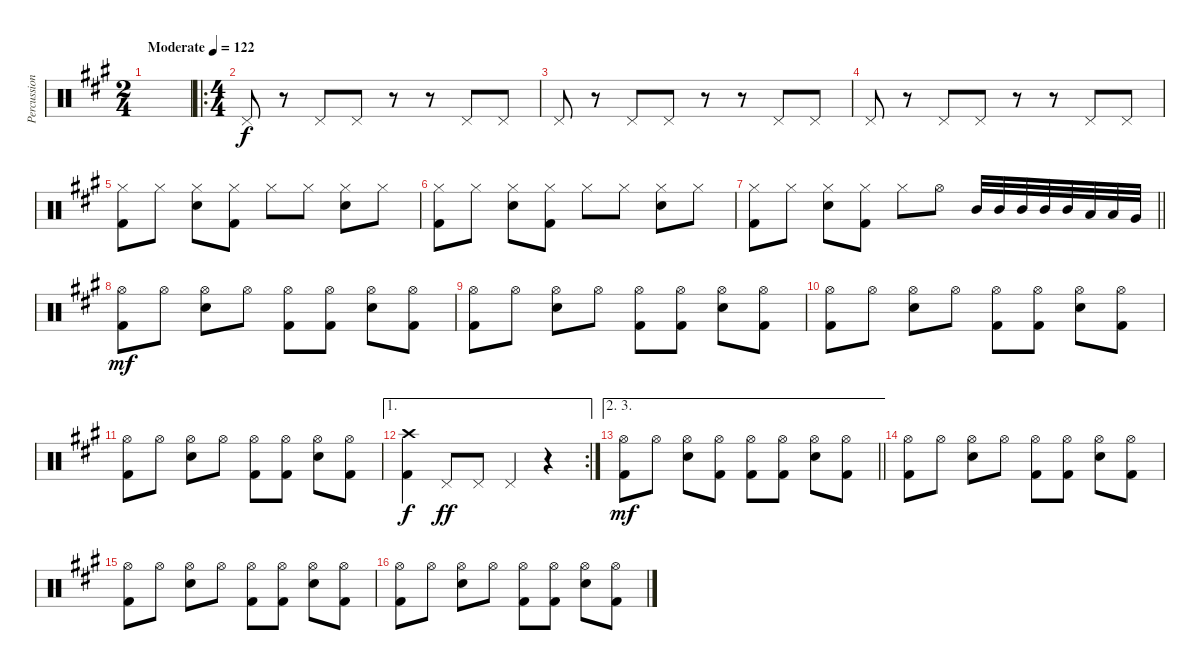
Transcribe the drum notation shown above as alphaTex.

\track ("Percussion" "Percussion") {instrument percussion}
\staff {score}
\articulation defaults
\ts (2 4)
\tempo (122 "Moderate")
\clef neutral
\ks a
|
\ro
\ts (4 4)
"Pedal Hi-Hat (hit)".8 r.8 "Pedal Hi-Hat (hit)".8 "Pedal Hi-Hat (hit)".8 r.8 r.8 "Pedal Hi-Hat (hit)".8 "Pedal Hi-Hat (hit)".8 |
"Pedal Hi-Hat (hit)".8 r.8 "Pedal Hi-Hat (hit)".8 "Pedal Hi-Hat (hit)".8 r.8 r.8 "Pedal Hi-Hat (hit)".8 "Pedal Hi-Hat (hit)".8 |
"Pedal Hi-Hat (hit)".8 r.8 "Pedal Hi-Hat (hit)".8 "Pedal Hi-Hat (hit)".8 r.8 r.8 "Pedal Hi-Hat (hit)".8 "Pedal Hi-Hat (hit)".8 |
("Hi-Hat (closed)" "Kick (hit) 2").8 "Hi-Hat (closed)".8 ("Hi-Hat (closed)" "Snare (hit) 2").8 ("Hi-Hat (closed)" "Kick (hit) 2").8 "Hi-Hat (closed)".8 "Hi-Hat (closed)".8 ("Hi-Hat (closed)" "Snare (hit) 2").8 "Hi-Hat (closed)".8 |
("Hi-Hat (closed)" "Kick (hit) 2").8 "Hi-Hat (closed)".8 ("Hi-Hat (closed)" "Snare (hit) 2").8 ("Hi-Hat (closed)" "Kick (hit) 2").8 "Hi-Hat (closed)".8 "Hi-Hat (closed)".8 ("Hi-Hat (closed)" "Snare (hit) 2").8 "Hi-Hat (closed)".8 |
\barLineRight lightlight
("Hi-Hat (closed)" "Kick (hit) 2").8 "Hi-Hat (closed)".8 ("Hi-Hat (closed)" "Snare (hit) 2").8 ("Hi-Hat (closed)" "Kick (hit) 2").8 "Hi-Hat (closed)".8 "Hi-Hat (open)".8 "Mid Tom (hit)".32 "Mid Tom (hit)".32 "Mid Tom (hit)".32 "Mid Tom (hit)".32 "Mid Tom (hit)".32 "Low Tom (hit)".32 "Low Tom (hit)".32 "Very Low Tom (hit)".32 |
("Hi-Hat (open)" "Kick (hit) 2").8{dy mf} "Hi-Hat (open)".8 ("Hi-Hat (open)" "Snare (hit) 2").8 "Hi-Hat (open)".8 ("Hi-Hat (open)" "Kick (hit) 2").8 ("Hi-Hat (open)" "Kick (hit) 2").8 ("Hi-Hat (open)" "Snare (hit) 2").8 ("Hi-Hat (open)" "Kick (hit) 2").8 |
("Hi-Hat (open)" "Kick (hit) 2").8 "Hi-Hat (open)".8 ("Hi-Hat (open)" "Snare (hit) 2").8 "Hi-Hat (open)".8 ("Hi-Hat (open)" "Kick (hit) 2").8 ("Hi-Hat (open)" "Kick (hit) 2").8 ("Hi-Hat (open)" "Snare (hit) 2").8 ("Hi-Hat (open)" "Kick (hit) 2").8 |
("Hi-Hat (open)" "Kick (hit) 2").8 "Hi-Hat (open)".8 ("Hi-Hat (open)" "Snare (hit) 2").8 "Hi-Hat (open)".8 ("Hi-Hat (open)" "Kick (hit) 2").8 ("Hi-Hat (open)" "Kick (hit) 2").8 ("Hi-Hat (open)" "Snare (hit) 2").8 ("Hi-Hat (open)" "Kick (hit) 2").8 |
("Hi-Hat (open)" "Kick (hit) 2").8 "Hi-Hat (open)".8 ("Hi-Hat (open)" "Snare (hit) 2").8 "Hi-Hat (open)".8 ("Hi-Hat (open)" "Kick (hit) 2").8 ("Hi-Hat (open)" "Kick (hit) 2").8 ("Hi-Hat (open)" "Snare (hit) 2").8 ("Hi-Hat (open)" "Kick (hit) 2").8 |
\ae 1
\rc 2
("Crash high (hit)" "Kick (hit) 2").4{dy f} "Pedal Hi-Hat (hit)".8{dy ff} "Pedal Hi-Hat (hit)".8 "Pedal Hi-Hat (hit)".4 r.4 |
\ae (2 3)
\barLineRight lightlight
("Hi-Hat (open)" "Kick (hit) 2").8{dy mf} "Hi-Hat (open)".8 ("Hi-Hat (open)" "Snare (hit) 2").8 ("Hi-Hat (open)" "Kick (hit) 2").8 ("Hi-Hat (open)" "Kick (hit) 2").8 ("Hi-Hat (open)" "Kick (hit) 2").8 ("Hi-Hat (open)" "Snare (hit) 2").8 ("Hi-Hat (open)" "Kick (hit) 2").8 |
("Hi-Hat (open)" "Kick (hit) 2").8 "Hi-Hat (open)".8 ("Hi-Hat (open)" "Snare (hit) 2").8 "Hi-Hat (open)".8 ("Hi-Hat (open)" "Kick (hit) 2").8 ("Hi-Hat (open)" "Kick (hit) 2").8 ("Hi-Hat (open)" "Snare (hit) 2").8 ("Hi-Hat (open)" "Kick (hit) 2").8 |
("Hi-Hat (open)" "Kick (hit) 2").8 "Hi-Hat (open)".8 ("Hi-Hat (open)" "Snare (hit) 2").8 "Hi-Hat (open)".8 ("Hi-Hat (open)" "Kick (hit) 2").8 ("Hi-Hat (open)" "Kick (hit) 2").8 ("Hi-Hat (open)" "Snare (hit) 2").8 ("Hi-Hat (open)" "Kick (hit) 2").8 |
("Hi-Hat (open)" "Kick (hit) 2").8 "Hi-Hat (open)".8 ("Hi-Hat (open)" "Snare (hit) 2").8 "Hi-Hat (open)".8 ("Hi-Hat (open)" "Kick (hit) 2").8 ("Hi-Hat (open)" "Kick (hit) 2").8 ("Hi-Hat (open)" "Snare (hit) 2").8 ("Hi-Hat (open)" "Kick (hit) 2").8
